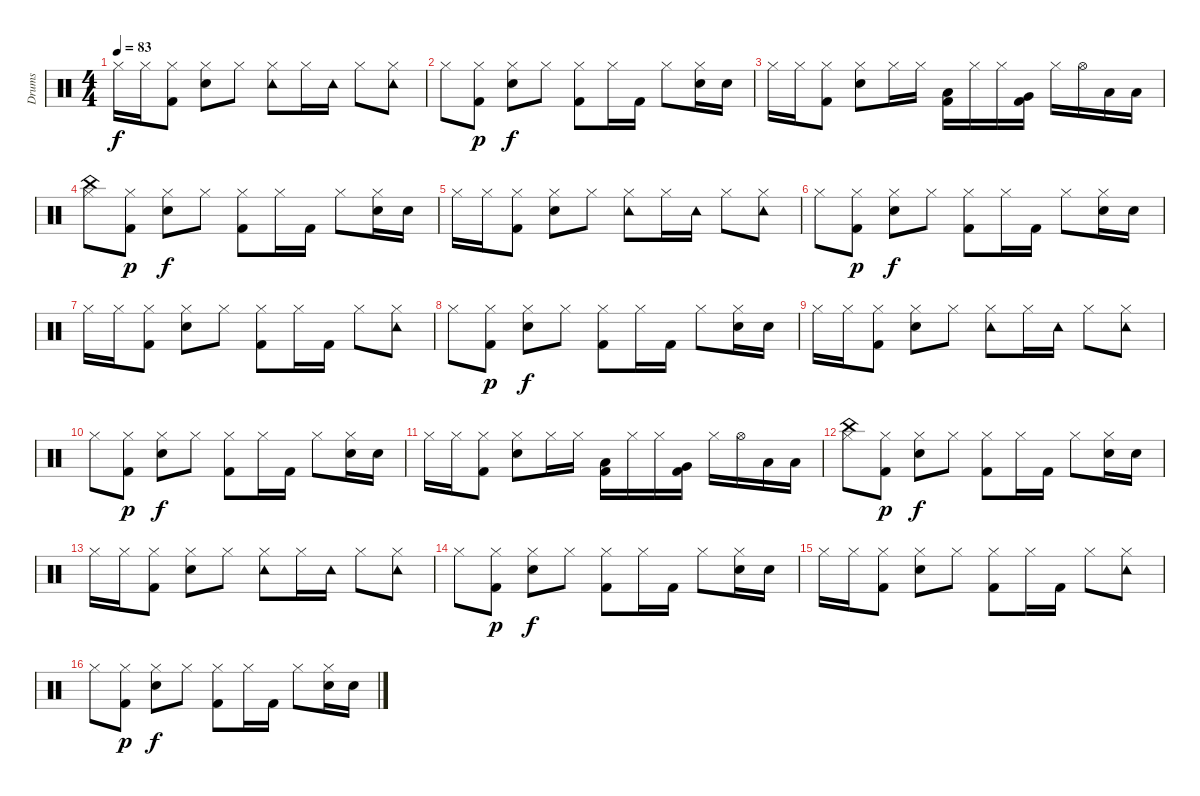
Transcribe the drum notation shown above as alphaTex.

\track ("Drums" "Drums") {instrument percussion}
\staff {score}
\articulation defaults
\ts (4 4)
\tempo 83
\clef neutral
\ks c "Hi-Hat (closed)".16{dy f} "Hi-Hat (closed)".16
("Kick (hit) 2" "Hi-Hat (closed)").8 ("Snare (hit) 2" "Hi-Hat (closed)").8 "Hi-Hat (closed)".8 ("Tambourine (hit)" "Hi-Hat (closed)").8 "Hi-Hat (closed)".16 "Tambourine (hit)".16 "Hi-Hat (closed)".8 ("Tambourine (hit)" "Hi-Hat (closed)").8 |
"Hi-Hat (closed)".8 ("Hi-Hat (closed)" "Kick (hit) 2").8{dy p} ("Snare (hit) 2" "Hi-Hat (closed)").8{dy f} "Hi-Hat (closed)".8 ("Kick (hit) 2" "Hi-Hat (closed)").8 "Hi-Hat (closed)".16 "Kick (hit) 2".16 "Hi-Hat (closed)".8 ("Hand Clap (hit)" "Hi-Hat (closed)").16 "Hand Clap (hit)".16 |
"Hi-Hat (closed)".16 "Hi-Hat (closed)".16 ("Kick (hit) 2" "Hi-Hat (closed)").8 ("Snare (hit) 2" "Hi-Hat (closed)").8 "Hi-Hat (closed)".16 "Hi-Hat (closed)".16 ("Low Tom (hit)" "Kick (hit) 2").16 "Hi-Hat (closed)".16 "Hi-Hat (closed)".16 ("Very Low Tom (hit)" "Kick (hit) 2").16 "Hi-Hat (closed)".16 "Hi-Hat (open)".16 "Low Floor Tom (hit)".16 "Low Floor Tom (hit)".16 |
("China (hit)" "Hi-Hat (closed)").8 ("Hi-Hat (closed)" "Kick (hit) 2").8{dy p} ("Snare (hit) 2" "Hi-Hat (closed)").8{dy f} "Hi-Hat (closed)".8 ("Kick (hit) 2" "Hi-Hat (closed)").8 "Hi-Hat (closed)".16 "Kick (hit) 2".16 "Hi-Hat (closed)".8 ("Hand Clap (hit)" "Hi-Hat (closed)").16 "Hand Clap (hit)".16 |
"Hi-Hat (closed)".16 "Hi-Hat (closed)".16 ("Kick (hit) 2" "Hi-Hat (closed)").8 ("Snare (hit) 2" "Hi-Hat (closed)").8 "Hi-Hat (closed)".8 ("Tambourine (hit)" "Hi-Hat (closed)").8 "Hi-Hat (closed)".16 "Tambourine (hit)".16 "Hi-Hat (closed)".8 ("Tambourine (hit)" "Hi-Hat (closed)").8 |
"Hi-Hat (closed)".8 ("Hi-Hat (closed)" "Kick (hit) 2").8{dy p} ("Snare (hit) 2" "Hi-Hat (closed)").8{dy f} "Hi-Hat (closed)".8 ("Kick (hit) 2" "Hi-Hat (closed)").8 "Hi-Hat (closed)".16 "Kick (hit) 2".16 "Hi-Hat (closed)".8 ("Hand Clap (hit)" "Hi-Hat (closed)").16 "Hand Clap (hit)".16 |
"Hi-Hat (closed)".16 "Hi-Hat (closed)".16 ("Kick (hit) 2" "Hi-Hat (closed)").8 ("Snare (hit) 2" "Hi-Hat (closed)").8 "Hi-Hat (closed)".8 ("Kick (hit) 2" "Hi-Hat (closed)").8 "Hi-Hat (closed)".16 "Kick (hit) 2".16 "Hi-Hat (closed)".8 ("Tambourine (hit)" "Hi-Hat (closed)").8 |
"Hi-Hat (closed)".8 ("Hi-Hat (closed)" "Kick (hit) 2").8{dy p} ("Snare (hit) 2" "Hi-Hat (closed)").8{dy f} "Hi-Hat (closed)".8 ("Kick (hit) 2" "Hi-Hat (closed)").8 "Hi-Hat (closed)".16 "Kick (hit) 2".16 "Hi-Hat (closed)".8 ("Hand Clap (hit)" "Hi-Hat (closed)").16 "Hand Clap (hit)".16 |
"Hi-Hat (closed)".16 "Hi-Hat (closed)".16 ("Kick (hit) 2" "Hi-Hat (closed)").8 ("Snare (hit) 2" "Hi-Hat (closed)").8 "Hi-Hat (closed)".8 ("Tambourine (hit)" "Hi-Hat (closed)").8 "Hi-Hat (closed)".16 "Tambourine (hit)".16 "Hi-Hat (closed)".8 ("Tambourine (hit)" "Hi-Hat (closed)").8 |
"Hi-Hat (closed)".8 ("Hi-Hat (closed)" "Kick (hit) 2").8{dy p} ("Snare (hit) 2" "Hi-Hat (closed)").8{dy f} "Hi-Hat (closed)".8 ("Kick (hit) 2" "Hi-Hat (closed)").8 "Hi-Hat (closed)".16 "Kick (hit) 2".16 "Hi-Hat (closed)".8 ("Hand Clap (hit)" "Hi-Hat (closed)").16 "Hand Clap (hit)".16 |
"Hi-Hat (closed)".16 "Hi-Hat (closed)".16 ("Kick (hit) 2" "Hi-Hat (closed)").8 ("Snare (hit) 2" "Hi-Hat (closed)").8 "Hi-Hat (closed)".16 "Hi-Hat (closed)".16 ("Low Tom (hit)" "Kick (hit) 2").16 "Hi-Hat (closed)".16 "Hi-Hat (closed)".16 ("Very Low Tom (hit)" "Kick (hit) 2").16 "Hi-Hat (closed)".16 "Hi-Hat (open)".16 "Low Floor Tom (hit)".16 "Low Floor Tom (hit)".16 |
("China (hit)" "Hi-Hat (closed)").8 ("Hi-Hat (closed)" "Kick (hit) 2").8{dy p} ("Snare (hit) 2" "Hi-Hat (closed)").8{dy f} "Hi-Hat (closed)".8 ("Kick (hit) 2" "Hi-Hat (closed)").8 "Hi-Hat (closed)".16 "Kick (hit) 2".16 "Hi-Hat (closed)".8 ("Hand Clap (hit)" "Hi-Hat (closed)").16 "Hand Clap (hit)".16 |
"Hi-Hat (closed)".16 "Hi-Hat (closed)".16 ("Kick (hit) 2" "Hi-Hat (closed)").8 ("Snare (hit) 2" "Hi-Hat (closed)").8 "Hi-Hat (closed)".8 ("Tambourine (hit)" "Hi-Hat (closed)").8 "Hi-Hat (closed)".16 "Tambourine (hit)".16 "Hi-Hat (closed)".8 ("Tambourine (hit)" "Hi-Hat (closed)").8 |
"Hi-Hat (closed)".8 ("Hi-Hat (closed)" "Kick (hit) 2").8{dy p} ("Snare (hit) 2" "Hi-Hat (closed)").8{dy f} "Hi-Hat (closed)".8 ("Kick (hit) 2" "Hi-Hat (closed)").8 "Hi-Hat (closed)".16 "Kick (hit) 2".16 "Hi-Hat (closed)".8 ("Hand Clap (hit)" "Hi-Hat (closed)").16 "Hand Clap (hit)".16 |
"Hi-Hat (closed)".16 "Hi-Hat (closed)".16 ("Kick (hit) 2" "Hi-Hat (closed)").8 ("Snare (hit) 2" "Hi-Hat (closed)").8 "Hi-Hat (closed)".8 ("Kick (hit) 2" "Hi-Hat (closed)").8 "Hi-Hat (closed)".16 "Kick (hit) 2".16 "Hi-Hat (closed)".8 ("Tambourine (hit)" "Hi-Hat (closed)").8 |
"Hi-Hat (closed)".8 ("Hi-Hat (closed)" "Kick (hit) 2").8{dy p} ("Snare (hit) 2" "Hi-Hat (closed)").8{dy f} "Hi-Hat (closed)".8 ("Kick (hit) 2" "Hi-Hat (closed)").8 "Hi-Hat (closed)".16 "Kick (hit) 2".16 "Hi-Hat (closed)".8 ("Hand Clap (hit)" "Hi-Hat (closed)").16 "Hand Clap (hit)".16
